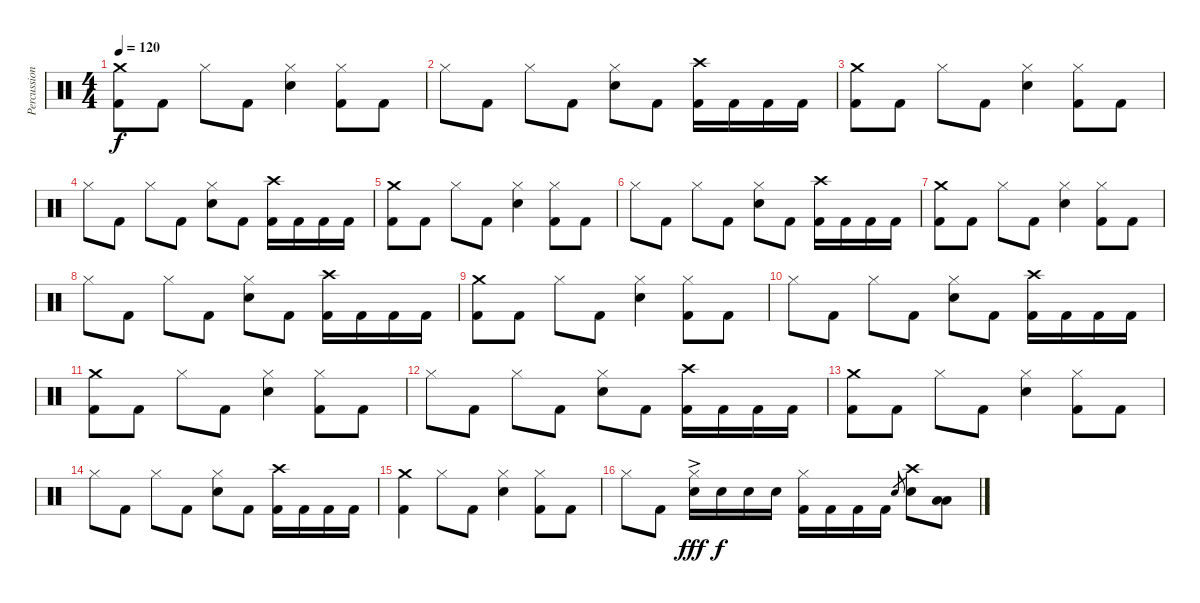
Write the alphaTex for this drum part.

\track ("Percussion" "Percussion") {instrument percussion}
\staff {score}
\articulation defaults
\ts (4 4)
\tempo 120
\clef neutral
\ks c
("Crash medium (hit)" "Kick (hit) 2").8{dy f} "Kick (hit) 2".8 "Hi-Hat (closed)".8 "Kick (hit) 2".8 ("Hi-Hat (closed)" "Electric Snare (hit)").4 ("Hi-Hat (closed)" "Kick (hit) 2").8 "Kick (hit) 2".8 |
"Hi-Hat (closed)".8 "Kick (hit) 2".8 "Hi-Hat (closed)".8 "Kick (hit) 2".8 ("Hi-Hat (closed)" "Electric Snare (hit)").8 "Kick (hit) 2".8 ("Crash high (hit)" "Kick (hit) 2").16 "Kick (hit) 2".16 "Kick (hit) 2".16 "Kick (hit) 2".16 |
("Crash medium (hit)" "Kick (hit) 2").8 "Kick (hit) 2".8 "Hi-Hat (closed)".8 "Kick (hit) 2".8 ("Hi-Hat (closed)" "Electric Snare (hit)").4 ("Hi-Hat (closed)" "Kick (hit) 2").8 "Kick (hit) 2".8 |
"Hi-Hat (closed)".8 "Kick (hit) 2".8 "Hi-Hat (closed)".8 "Kick (hit) 2".8 ("Hi-Hat (closed)" "Electric Snare (hit)").8 "Kick (hit) 2".8 ("Crash high (hit)" "Kick (hit) 2").16 "Kick (hit) 2".16 "Kick (hit) 2".16 "Kick (hit) 2".16 |
("Crash medium (hit)" "Kick (hit) 2").8 "Kick (hit) 2".8 "Hi-Hat (closed)".8 "Kick (hit) 2".8 ("Hi-Hat (closed)" "Electric Snare (hit)").4 ("Hi-Hat (closed)" "Kick (hit) 2").8 "Kick (hit) 2".8 |
"Hi-Hat (closed)".8 "Kick (hit) 2".8 "Hi-Hat (closed)".8 "Kick (hit) 2".8 ("Hi-Hat (closed)" "Electric Snare (hit)").8 "Kick (hit) 2".8 ("Crash high (hit)" "Kick (hit) 2").16 "Kick (hit) 2".16 "Kick (hit) 2".16 "Kick (hit) 2".16 |
("Crash medium (hit)" "Kick (hit) 2").8 "Kick (hit) 2".8 "Hi-Hat (closed)".8 "Kick (hit) 2".8 ("Hi-Hat (closed)" "Electric Snare (hit)").4 ("Hi-Hat (closed)" "Kick (hit) 2").8 "Kick (hit) 2".8 |
"Hi-Hat (closed)".8 "Kick (hit) 2".8 "Hi-Hat (closed)".8 "Kick (hit) 2".8 ("Hi-Hat (closed)" "Electric Snare (hit)").8 "Kick (hit) 2".8 ("Crash high (hit)" "Kick (hit) 2").16 "Kick (hit) 2".16 "Kick (hit) 2".16 "Kick (hit) 2".16 |
("Crash medium (hit)" "Kick (hit) 2").8 "Kick (hit) 2".8 "Hi-Hat (closed)".8 "Kick (hit) 2".8 ("Hi-Hat (closed)" "Electric Snare (hit)").4 ("Hi-Hat (closed)" "Kick (hit) 2").8 "Kick (hit) 2".8 |
"Hi-Hat (closed)".8 "Kick (hit) 2".8 "Hi-Hat (closed)".8 "Kick (hit) 2".8 ("Hi-Hat (closed)" "Electric Snare (hit)").8 "Kick (hit) 2".8 ("Crash high (hit)" "Kick (hit) 2").16 "Kick (hit) 2".16 "Kick (hit) 2".16 "Kick (hit) 2".16 |
("Crash medium (hit)" "Kick (hit) 2").8 "Kick (hit) 2".8 "Hi-Hat (closed)".8 "Kick (hit) 2".8 ("Hi-Hat (closed)" "Electric Snare (hit)").4 ("Hi-Hat (closed)" "Kick (hit) 2").8 "Kick (hit) 2".8 |
"Hi-Hat (closed)".8 "Kick (hit) 2".8 "Hi-Hat (closed)".8 "Kick (hit) 2".8 ("Hi-Hat (closed)" "Electric Snare (hit)").8 "Kick (hit) 2".8 ("Crash high (hit)" "Kick (hit) 2").16 "Kick (hit) 2".16 "Kick (hit) 2".16 "Kick (hit) 2".16 |
("Crash medium (hit)" "Kick (hit) 2").8 "Kick (hit) 2".8 "Hi-Hat (closed)".8 "Kick (hit) 2".8 ("Hi-Hat (closed)" "Electric Snare (hit)").4 ("Hi-Hat (closed)" "Kick (hit) 2").8 "Kick (hit) 2".8 |
"Hi-Hat (closed)".8 "Kick (hit) 2".8 "Hi-Hat (closed)".8 "Kick (hit) 2".8 ("Hi-Hat (closed)" "Electric Snare (hit)").8 "Kick (hit) 2".8 ("Crash high (hit)" "Kick (hit) 2").16 "Kick (hit) 2".16 "Kick (hit) 2".16 "Kick (hit) 2".16 |
("Crash medium (hit)" "Kick (hit) 2").4 "Hi-Hat (closed)".8 "Kick (hit) 2".8 ("Hi-Hat (closed)" "Electric Snare (hit)").4 ("Hi-Hat (closed)" "Kick (hit) 2").8 "Kick (hit) 2".8 |
"Hi-Hat (closed)".8 "Kick (hit) 2".8 ("Hi-Hat (closed)" "Electric Snare (hit)"{ac}).16{dy fff} "Electric Snare (hit)".16{dy f} "Electric Snare (hit)".16 "Electric Snare (hit)".16 ("Hi-Hat (closed)" "Kick (hit) 2").16 "Kick (hit) 2".16 "Kick (hit) 2".16 "Kick (hit) 2".16 "Electric Snare (hit)".8{gr} ("Crash high (hit)" "Electric Snare (hit)").8 ("Low Tom (hit)" "Low Tom (hit)").8
